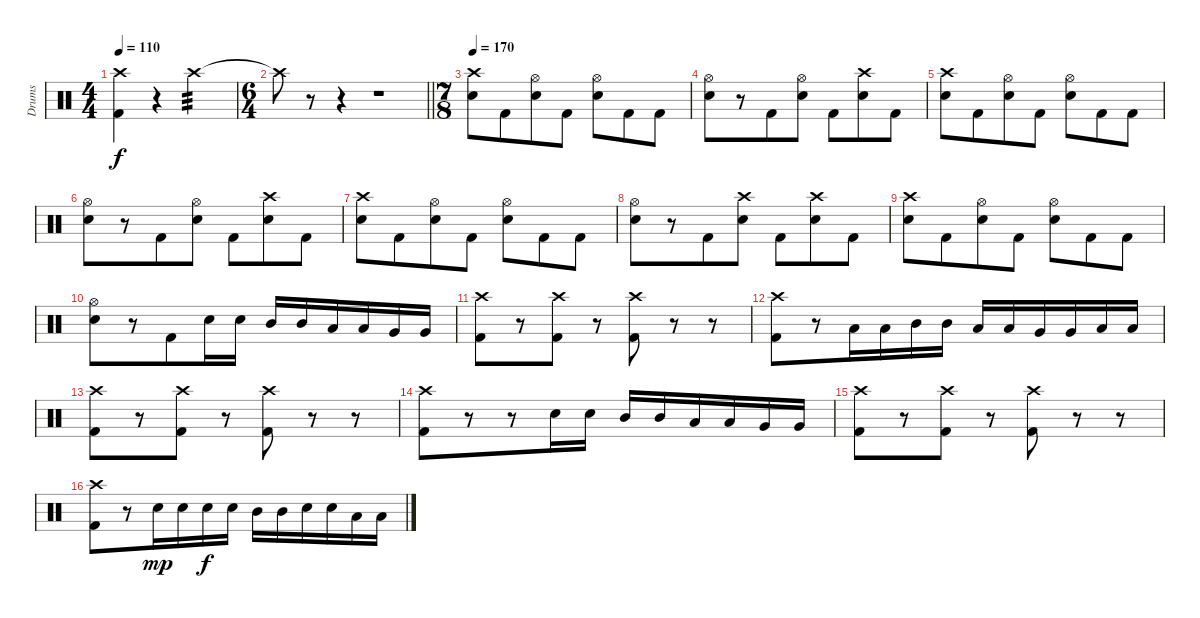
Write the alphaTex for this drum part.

\track ("Drums" "Drums") {instrument percussion}
\staff {score}
\articulation defaults
\ts (4 4)
\tempo 110
\clef neutral
\ks c
("Crash high (hit)" "Kick (hit) 2").4{dy f} r.4{volume 0} "Crash high (hit)".2{tp 3 volume 12} |
\ts (6 4)
\barLineRight lightlight "Crash high (hit)"{t}.8
r.8 r.4 r.1 |
\ts (7 8)
\tempo 170
("Crash high (hit)" "Snare (hit) 2").8 "Kick (hit) 2".8 ("Hi-Hat (open)" "Snare (hit) 2").8 "Kick (hit) 2".8 ("Hi-Hat (open)" "Snare (hit) 2").8 "Kick (hit) 2".8 "Kick (hit) 2".8 |
("Hi-Hat (open)" "Snare (hit) 2").8 r.8 "Kick (hit) 2".8 ("Hi-Hat (open)" "Snare (hit) 2").8 "Kick (hit) 2".8 ("Crash high (hit)" "Snare (hit) 2").8 "Kick (hit) 2".8 |
("Crash high (hit)" "Snare (hit) 2").8 "Kick (hit) 2".8 ("Hi-Hat (open)" "Snare (hit) 2").8 "Kick (hit) 2".8 ("Hi-Hat (open)" "Snare (hit) 2").8 "Kick (hit) 2".8 "Kick (hit) 2".8 |
("Hi-Hat (open)" "Snare (hit) 2").8 r.8 "Kick (hit) 2".8 ("Hi-Hat (open)" "Snare (hit) 2").8 "Kick (hit) 2".8 ("Crash high (hit)" "Snare (hit) 2").8 "Kick (hit) 2".8 |
("Crash high (hit)" "Snare (hit) 2").8 "Kick (hit) 2".8 ("Hi-Hat (open)" "Snare (hit) 2").8 "Kick (hit) 2".8 ("Hi-Hat (open)" "Snare (hit) 2").8 "Kick (hit) 2".8 "Kick (hit) 2".8 |
("Hi-Hat (open)" "Snare (hit) 2").8 r.8 "Kick (hit) 2".8 ("Crash high (hit)" "Snare (hit) 2").8 "Kick (hit) 2".8 ("Crash high (hit)" "Snare (hit) 2").8 "Kick (hit) 2".8 |
("Crash high (hit)" "Snare (hit) 2").8 "Kick (hit) 2".8 ("Hi-Hat (open)" "Snare (hit) 2").8 "Kick (hit) 2".8 ("Hi-Hat (open)" "Snare (hit) 2").8 "Kick (hit) 2".8 "Kick (hit) 2".8 |
("Hi-Hat (open)" "Snare (hit) 2").8 r.8 "Kick (hit) 2".8 "Snare (hit) 2".16 "Snare (hit) 2".16 "Mid Tom (hit)".16 "Mid Tom (hit)".16 "Low Tom (hit)".16 "Low Tom (hit)".16 "Very Low Tom (hit)".16 "Very Low Tom (hit)".16 |
("Crash high (hit)" "Kick (hit) 2").8 r.8 ("Crash high (hit)" "Kick (hit) 2").8 r.8 ("Crash high (hit)" "Kick (hit) 2").8 r.8 r.8 |
("Crash high (hit)" "Kick (hit) 2").8 r.8 "Low Tom (hit)".16 "Low Tom (hit)".16 "Mid Tom (hit)".16 "Mid Tom (hit)".16 "Low Tom (hit)".16 "Low Tom (hit)".16 "Very Low Tom (hit)".16 "Very Low Tom (hit)".16 "Low Floor Tom (hit)".16 "Low Floor Tom (hit)".16 |
("Crash high (hit)" "Kick (hit) 2").8 r.8 ("Crash high (hit)" "Kick (hit) 2").8 r.8 ("Crash high (hit)" "Kick (hit) 2").8 r.8 r.8 |
("Crash high (hit)" "Kick (hit) 2").8 r.8 r.8 "Snare (hit) 2".16 "Snare (hit) 2".16 "Mid Tom (hit)".16 "Mid Tom (hit)".16 "Low Tom (hit)".16 "Low Tom (hit)".16 "Very Low Tom (hit)".16 "Very Low Tom (hit)".16 |
("Crash high (hit)" "Kick (hit) 2").8 r.8 ("Crash high (hit)" "Kick (hit) 2").8 r.8 ("Crash high (hit)" "Kick (hit) 2").8 r.8 r.8 |
("Crash high (hit)" "Kick (hit) 2").8 r.8 "Snare (hit) 2".16{dy mp} "Snare (hit) 2".16 "Snare (hit) 2".16{dy f} "Snare (hit) 2".16 "Mid Tom (hit)".16 "Mid Tom (hit)".16 "Snare (hit) 2".16 "Snare (hit) 2".16 "Low Tom (hit)".16 "Low Tom (hit)".16
